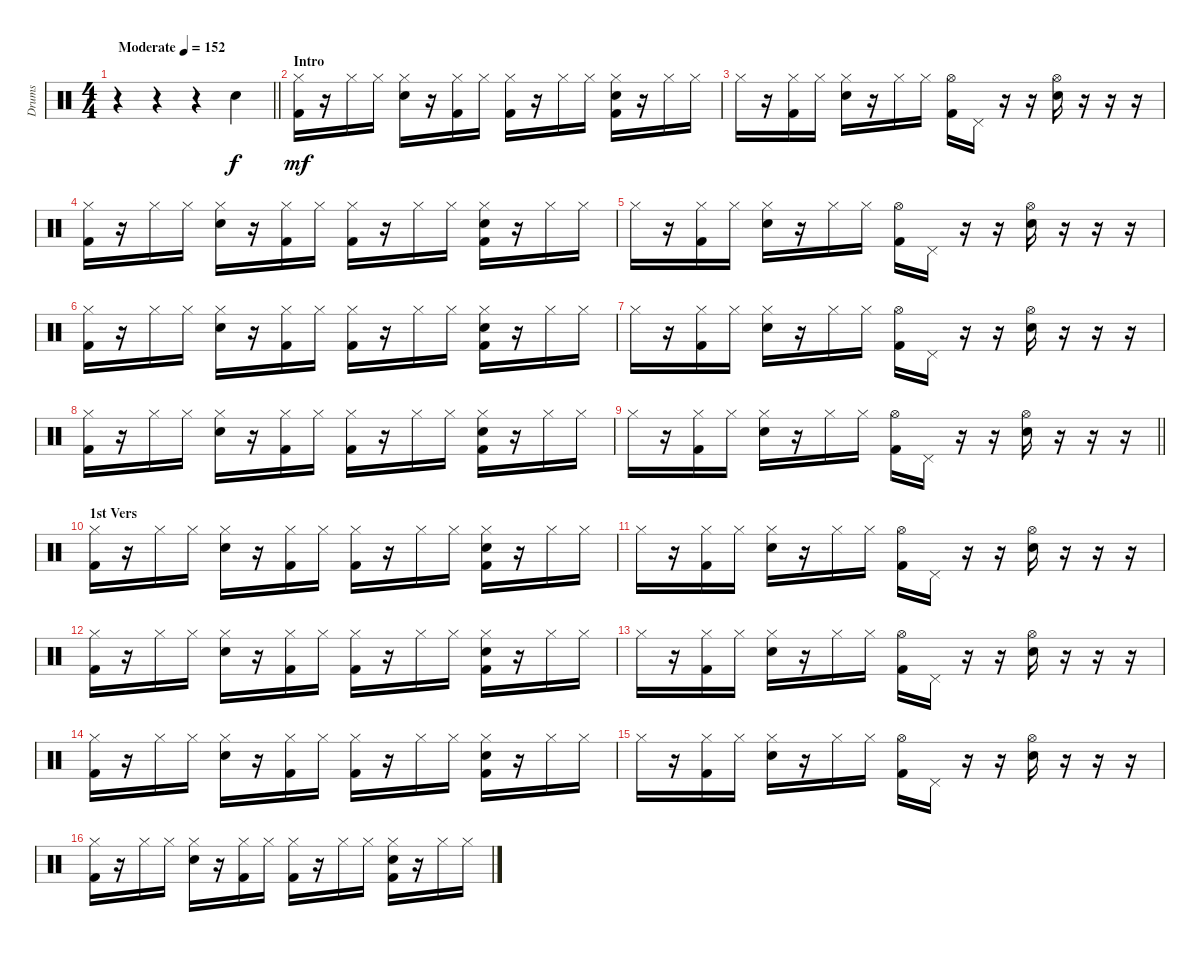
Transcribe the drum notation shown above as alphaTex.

\track ("Drums" "Drums") {instrument percussion}
\staff {score}
\articulation defaults
\ts (4 4)
\tempo (152 "Moderate")
\clef neutral
\barLineRight lightlight
\ks c
r.4{dy f} r.4 r.4 "Snare (hit) 2".4 |
\section ("" "Intro")
("Hi-Hat (closed)" "Kick (hit) 2").16{dy mf} r.16 "Hi-Hat (closed)".16 "Hi-Hat (closed)".16 ("Hi-Hat (closed)" "Snare (hit) 2").16 r.16 ("Hi-Hat (closed)" "Kick (hit) 2").16 "Hi-Hat (closed)".16 ("Hi-Hat (closed)" "Kick (hit) 2").16 r.16 "Hi-Hat (closed)".16 "Hi-Hat (closed)".16 ("Hi-Hat (closed)" "Snare (hit) 2" "Kick (hit) 2").16 r.16 "Hi-Hat (closed)".16 "Hi-Hat (closed)".16 |
"Hi-Hat (closed)".16 r.16 ("Hi-Hat (closed)" "Kick (hit) 2").16 "Hi-Hat (closed)".16 ("Hi-Hat (closed)" "Snare (hit) 2").16 r.16 "Hi-Hat (closed)".16 "Hi-Hat (closed)".16 ("Hi-Hat (open)" "Kick (hit) 2").16 "Pedal Hi-Hat (hit)".16 r.16 r.16 ("Hi-Hat (open)" "Snare (hit) 2").16 r.16 r.16 r.16 |
("Hi-Hat (closed)" "Kick (hit) 2").16 r.16 "Hi-Hat (closed)".16 "Hi-Hat (closed)".16 ("Hi-Hat (closed)" "Snare (hit) 2").16 r.16 ("Hi-Hat (closed)" "Kick (hit) 2").16 "Hi-Hat (closed)".16 ("Hi-Hat (closed)" "Kick (hit) 2").16 r.16 "Hi-Hat (closed)".16 "Hi-Hat (closed)".16 ("Hi-Hat (closed)" "Snare (hit) 2" "Kick (hit) 2").16 r.16 "Hi-Hat (closed)".16 "Hi-Hat (closed)".16 |
"Hi-Hat (closed)".16 r.16 ("Hi-Hat (closed)" "Kick (hit) 2").16 "Hi-Hat (closed)".16 ("Hi-Hat (closed)" "Snare (hit) 2").16 r.16 "Hi-Hat (closed)".16 "Hi-Hat (closed)".16 ("Hi-Hat (open)" "Kick (hit) 2").16 "Pedal Hi-Hat (hit)".16 r.16 r.16 ("Hi-Hat (open)" "Snare (hit) 2").16 r.16 r.16 r.16 |
("Hi-Hat (closed)" "Kick (hit) 2").16 r.16 "Hi-Hat (closed)".16 "Hi-Hat (closed)".16 ("Hi-Hat (closed)" "Snare (hit) 2").16 r.16 ("Hi-Hat (closed)" "Kick (hit) 2").16 "Hi-Hat (closed)".16 ("Hi-Hat (closed)" "Kick (hit) 2").16 r.16 "Hi-Hat (closed)".16 "Hi-Hat (closed)".16 ("Hi-Hat (closed)" "Snare (hit) 2" "Kick (hit) 2").16 r.16 "Hi-Hat (closed)".16 "Hi-Hat (closed)".16 |
"Hi-Hat (closed)".16 r.16 ("Hi-Hat (closed)" "Kick (hit) 2").16 "Hi-Hat (closed)".16 ("Hi-Hat (closed)" "Snare (hit) 2").16 r.16 "Hi-Hat (closed)".16 "Hi-Hat (closed)".16 ("Hi-Hat (open)" "Kick (hit) 2").16 "Pedal Hi-Hat (hit)".16 r.16 r.16 ("Hi-Hat (open)" "Snare (hit) 2").16 r.16 r.16 r.16 |
("Hi-Hat (closed)" "Kick (hit) 2").16 r.16 "Hi-Hat (closed)".16 "Hi-Hat (closed)".16 ("Hi-Hat (closed)" "Snare (hit) 2").16 r.16 ("Hi-Hat (closed)" "Kick (hit) 2").16 "Hi-Hat (closed)".16 ("Hi-Hat (closed)" "Kick (hit) 2").16 r.16 "Hi-Hat (closed)".16 "Hi-Hat (closed)".16 ("Hi-Hat (closed)" "Snare (hit) 2" "Kick (hit) 2").16 r.16 "Hi-Hat (closed)".16 "Hi-Hat (closed)".16 |
\barLineRight lightlight "Hi-Hat (closed)".16
r.16 ("Hi-Hat (closed)" "Kick (hit) 2").16 "Hi-Hat (closed)".16 ("Hi-Hat (closed)" "Snare (hit) 2").16 r.16 "Hi-Hat (closed)".16 "Hi-Hat (closed)".16 ("Hi-Hat (open)" "Kick (hit) 2").16 "Pedal Hi-Hat (hit)".16 r.16 r.16 ("Hi-Hat (open)" "Snare (hit) 2").16 r.16 r.16 r.16 |
\section ("" "1st Vers ")
("Hi-Hat (closed)" "Kick (hit) 2").16 r.16 "Hi-Hat (closed)".16 "Hi-Hat (closed)".16 ("Hi-Hat (closed)" "Snare (hit) 2").16 r.16 ("Hi-Hat (closed)" "Kick (hit) 2").16 "Hi-Hat (closed)".16 ("Hi-Hat (closed)" "Kick (hit) 2").16 r.16 "Hi-Hat (closed)".16 "Hi-Hat (closed)".16 ("Hi-Hat (closed)" "Snare (hit) 2" "Kick (hit) 2").16 r.16 "Hi-Hat (closed)".16 "Hi-Hat (closed)".16 |
"Hi-Hat (closed)".16 r.16 ("Hi-Hat (closed)" "Kick (hit) 2").16 "Hi-Hat (closed)".16 ("Hi-Hat (closed)" "Snare (hit) 2").16 r.16 "Hi-Hat (closed)".16 "Hi-Hat (closed)".16 ("Hi-Hat (open)" "Kick (hit) 2").16 "Pedal Hi-Hat (hit)".16 r.16 r.16 ("Hi-Hat (open)" "Snare (hit) 2").16 r.16 r.16 r.16 |
("Hi-Hat (closed)" "Kick (hit) 2").16 r.16 "Hi-Hat (closed)".16 "Hi-Hat (closed)".16 ("Hi-Hat (closed)" "Snare (hit) 2").16 r.16 ("Hi-Hat (closed)" "Kick (hit) 2").16 "Hi-Hat (closed)".16 ("Hi-Hat (closed)" "Kick (hit) 2").16 r.16 "Hi-Hat (closed)".16 "Hi-Hat (closed)".16 ("Hi-Hat (closed)" "Snare (hit) 2" "Kick (hit) 2").16 r.16 "Hi-Hat (closed)".16 "Hi-Hat (closed)".16 |
"Hi-Hat (closed)".16 r.16 ("Hi-Hat (closed)" "Kick (hit) 2").16 "Hi-Hat (closed)".16 ("Hi-Hat (closed)" "Snare (hit) 2").16 r.16 "Hi-Hat (closed)".16 "Hi-Hat (closed)".16 ("Hi-Hat (open)" "Kick (hit) 2").16 "Pedal Hi-Hat (hit)".16 r.16 r.16 ("Hi-Hat (open)" "Snare (hit) 2").16 r.16 r.16 r.16 |
("Hi-Hat (closed)" "Kick (hit) 2").16 r.16 "Hi-Hat (closed)".16 "Hi-Hat (closed)".16 ("Hi-Hat (closed)" "Snare (hit) 2").16 r.16 ("Hi-Hat (closed)" "Kick (hit) 2").16 "Hi-Hat (closed)".16 ("Hi-Hat (closed)" "Kick (hit) 2").16 r.16 "Hi-Hat (closed)".16 "Hi-Hat (closed)".16 ("Hi-Hat (closed)" "Snare (hit) 2" "Kick (hit) 2").16 r.16 "Hi-Hat (closed)".16 "Hi-Hat (closed)".16 |
"Hi-Hat (closed)".16 r.16 ("Hi-Hat (closed)" "Kick (hit) 2").16 "Hi-Hat (closed)".16 ("Hi-Hat (closed)" "Snare (hit) 2").16 r.16 "Hi-Hat (closed)".16 "Hi-Hat (closed)".16 ("Hi-Hat (open)" "Kick (hit) 2").16 "Pedal Hi-Hat (hit)".16 r.16 r.16 ("Hi-Hat (open)" "Snare (hit) 2").16 r.16 r.16 r.16 |
("Hi-Hat (closed)" "Kick (hit) 2").16 r.16 "Hi-Hat (closed)".16 "Hi-Hat (closed)".16 ("Hi-Hat (closed)" "Snare (hit) 2").16 r.16 ("Hi-Hat (closed)" "Kick (hit) 2").16 "Hi-Hat (closed)".16 ("Hi-Hat (closed)" "Kick (hit) 2").16 r.16 "Hi-Hat (closed)".16 "Hi-Hat (closed)".16 ("Hi-Hat (closed)" "Snare (hit) 2" "Kick (hit) 2").16 r.16 "Hi-Hat (closed)".16 "Hi-Hat (closed)".16
